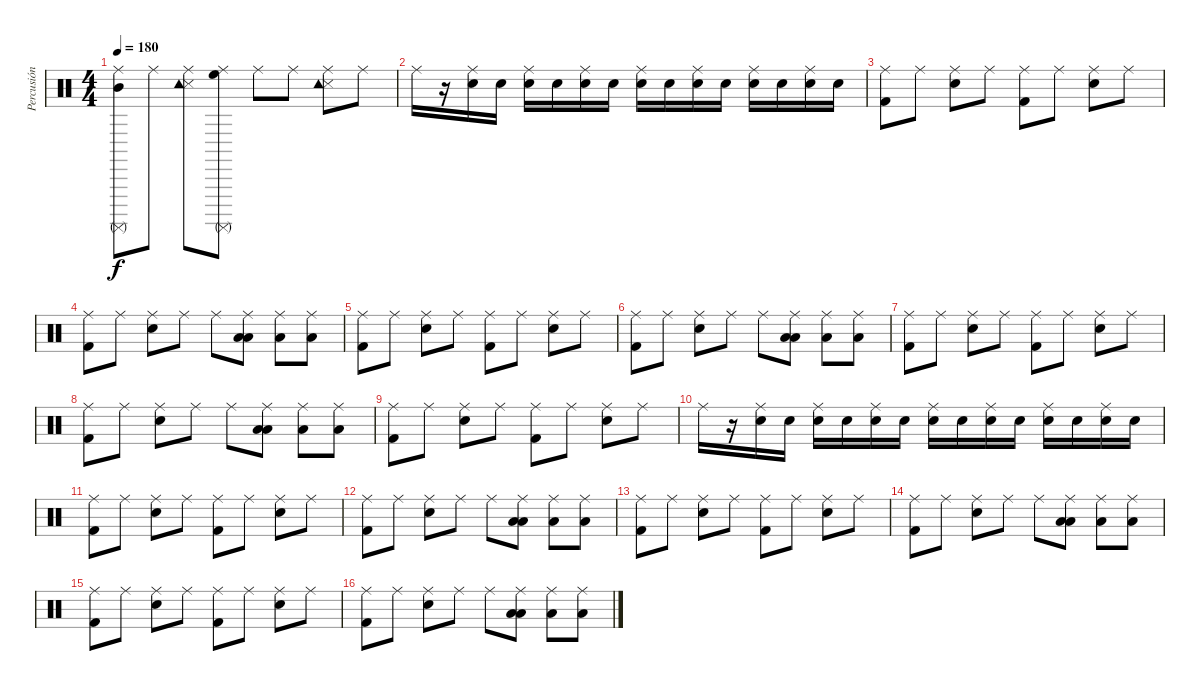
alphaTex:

\track ("Percusión" "Percusión") {instrument percussion}
\staff {score}
\articulation defaults
\ts (4 4)
\tempo 180
\clef neutral
\ks c
("Ride (middle)" "Surdo (mute)" "Mid Tom (hit)").8{dy f} "Ride (middle)".8 ("Snare (side stick) 3" "Ride (middle)" "Tambourine (hit)").8 ("Ride (middle)" "Surdo (mute)" "High Floor Tom (hit)").8 "Ride (middle)".8 "Ride (middle)".8 ("Snare (side stick) 3" "Ride (middle)" "Tambourine (hit)").8 "Ride (middle)".8 |
"Ride (middle)".16 r.16 ("Ride (middle)" "Electric Snare (hit)").16 "Electric Snare (hit)".16 ("Ride (middle)" "Electric Snare (hit)").16 "Electric Snare (hit)".16 ("Ride (middle)" "Electric Snare (hit)").16 "Electric Snare (hit)".16 ("Ride (middle)" "Electric Snare (hit)").16 "Electric Snare (hit)".16 ("Ride (middle)" "Electric Snare (hit)").16 "Electric Snare (hit)".16 ("Ride (middle)" "Electric Snare (hit)").16 "Electric Snare (hit)".16 ("Ride (middle)" "Electric Snare (hit)").16 "Electric Snare (hit)".16 |
("Kick (hit) 2" "Ride (middle)").8 "Ride (middle)".8 ("Electric Snare (hit)" "Ride (middle)").8 "Ride (middle)".8 ("Kick (hit) 2" "Ride (middle)").8 "Ride (middle)".8 ("Electric Snare (hit)" "Ride (middle)").8 "Ride (middle)".8 |
("Kick (hit) 2" "Ride (middle)").8 "Ride (middle)".8 ("Electric Snare (hit)" "Ride (middle)").8 "Ride (middle)".8 "Ride (middle)".8 ("Low Floor Tom (hit)" "Ride (middle)" "Low Tom (hit)").8 ("Ride (middle)" "Low Tom (hit)").8 ("Ride (middle)" "Low Tom (hit)").8 |
("Kick (hit) 2" "Ride (middle)").8 "Ride (middle)".8 ("Electric Snare (hit)" "Ride (middle)").8 "Ride (middle)".8 ("Kick (hit) 2" "Ride (middle)").8 "Ride (middle)".8 ("Electric Snare (hit)" "Ride (middle)").8 "Ride (middle)".8 |
("Kick (hit) 2" "Ride (middle)").8 "Ride (middle)".8 ("Electric Snare (hit)" "Ride (middle)").8 "Ride (middle)".8 "Ride (middle)".8 ("Low Floor Tom (hit)" "Ride (middle)" "Low Tom (hit)").8 ("Ride (middle)" "Low Tom (hit)").8 ("Ride (middle)" "Low Tom (hit)").8 |
("Kick (hit) 2" "Ride (middle)").8 "Ride (middle)".8 ("Electric Snare (hit)" "Ride (middle)").8 "Ride (middle)".8 ("Kick (hit) 2" "Ride (middle)").8 "Ride (middle)".8 ("Electric Snare (hit)" "Ride (middle)").8 "Ride (middle)".8 |
("Kick (hit) 2" "Ride (middle)").8 "Ride (middle)".8 ("Electric Snare (hit)" "Ride (middle)").8 "Ride (middle)".8 "Ride (middle)".8 ("Low Floor Tom (hit)" "Ride (middle)" "Low Tom (hit)").8 ("Ride (middle)" "Low Tom (hit)").8 ("Ride (middle)" "Low Tom (hit)").8 |
("Kick (hit) 2" "Ride (middle)").8 "Ride (middle)".8 ("Electric Snare (hit)" "Ride (middle)").8 "Ride (middle)".8 ("Kick (hit) 2" "Ride (middle)").8 "Ride (middle)".8 ("Electric Snare (hit)" "Ride (middle)").8 "Ride (middle)".8 |
"Ride (middle)".16 r.16 ("Ride (middle)" "Electric Snare (hit)").16 "Electric Snare (hit)".16 ("Ride (middle)" "Electric Snare (hit)").16 "Electric Snare (hit)".16 ("Ride (middle)" "Electric Snare (hit)").16 "Electric Snare (hit)".16 ("Ride (middle)" "Electric Snare (hit)").16 "Electric Snare (hit)".16 ("Ride (middle)" "Electric Snare (hit)").16 "Electric Snare (hit)".16 ("Ride (middle)" "Electric Snare (hit)").16 "Electric Snare (hit)".16 ("Ride (middle)" "Electric Snare (hit)").16 "Electric Snare (hit)".16 |
("Kick (hit) 2" "Ride (middle)").8 "Ride (middle)".8 ("Electric Snare (hit)" "Ride (middle)").8 "Ride (middle)".8 ("Kick (hit) 2" "Ride (middle)").8 "Ride (middle)".8 ("Electric Snare (hit)" "Ride (middle)").8 "Ride (middle)".8 |
("Kick (hit) 2" "Ride (middle)").8 "Ride (middle)".8 ("Electric Snare (hit)" "Ride (middle)").8 "Ride (middle)".8 "Ride (middle)".8 ("Low Floor Tom (hit)" "Ride (middle)" "Low Tom (hit)").8 ("Ride (middle)" "Low Tom (hit)").8 ("Ride (middle)" "Low Tom (hit)").8 |
("Kick (hit) 2" "Ride (middle)").8 "Ride (middle)".8 ("Electric Snare (hit)" "Ride (middle)").8 "Ride (middle)".8 ("Kick (hit) 2" "Ride (middle)").8 "Ride (middle)".8 ("Electric Snare (hit)" "Ride (middle)").8 "Ride (middle)".8 |
("Kick (hit) 2" "Ride (middle)").8 "Ride (middle)".8 ("Electric Snare (hit)" "Ride (middle)").8 "Ride (middle)".8 "Ride (middle)".8 ("Low Floor Tom (hit)" "Ride (middle)" "Low Tom (hit)").8 ("Ride (middle)" "Low Tom (hit)").8 ("Ride (middle)" "Low Tom (hit)").8 |
("Kick (hit) 2" "Ride (middle)").8 "Ride (middle)".8 ("Electric Snare (hit)" "Ride (middle)").8 "Ride (middle)".8 ("Kick (hit) 2" "Ride (middle)").8 "Ride (middle)".8 ("Electric Snare (hit)" "Ride (middle)").8 "Ride (middle)".8 |
("Kick (hit) 2" "Ride (middle)").8 "Ride (middle)".8 ("Electric Snare (hit)" "Ride (middle)").8 "Ride (middle)".8 "Ride (middle)".8 ("Low Floor Tom (hit)" "Ride (middle)" "Low Tom (hit)").8 ("Ride (middle)" "Low Tom (hit)").8 ("Ride (middle)" "Low Tom (hit)").8
